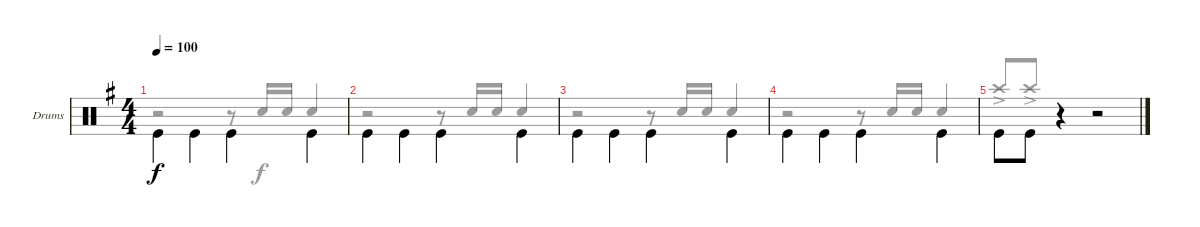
\bracketExtendMode groupsimilarinstruments
\firstSystemTrackNameOrientation horizontal
\otherSystemsTrackNameOrientation horizontal
\track ("Drum" "Drums") {instrument percussion}
\staff {score}
\articulation defaults
\voice
\ts (4 4)
\tempo 100
\clef neutral
\scale
1.04288
\ks g "Kick (hit)".4{dy f beam invert} "Kick (hit)".4{beam invert} "Kick (hit)".4{beam invert} "Kick (hit)".4{beam invert}
|
\scale
0.957125 "Kick (hit)".4{beam invert} "Kick (hit)".4{beam invert} "Kick (hit)".4{beam invert} "Kick (hit)".4{beam invert} |
\scale
1.04288 "Kick (hit)".4{beam invert} "Kick (hit)".4{beam invert} "Kick (hit)".4{beam invert} "Kick (hit)".4{beam invert} |
\scale
0.957125 "Kick (hit)".4{beam invert} "Kick (hit)".4{beam invert} "Kick (hit)".4{beam invert} "Kick (hit)".4{beam invert} |
\scale
1.04288 "Kick (hit)".8{beam invert} "Kick (hit)".8{beam merge} r.4{beam merge} r.2
\voice
\clef neutral
\ottava regular
\simile none
\scale
1.04288
\ks g
r.2{dy f} r.8 "Snare (hit) 2".16{beam invert} "Snare (hit) 2".16 "Snare (hit) 2".4{beam invert} |
\scale
0.957125 r.2 r.8 "Snare (hit) 2".16{beam invert} "Snare (hit) 2".16 "Snare (hit) 2".4{beam invert} |
\scale
1.04288 r.2 r.8 "Snare (hit) 2".16{beam invert} "Snare (hit) 2".16 "Snare (hit) 2".4{beam invert} |
\scale
0.957125 r.2 r.8 "Snare (hit) 2".16{beam invert} "Snare (hit) 2".16 "Snare (hit) 2".4{beam invert} |
\scale
1.04288 "Crash high (hit)"{ac}.8{beam invert} "Crash high (hit)"{ac}.8 r.4 r.2
